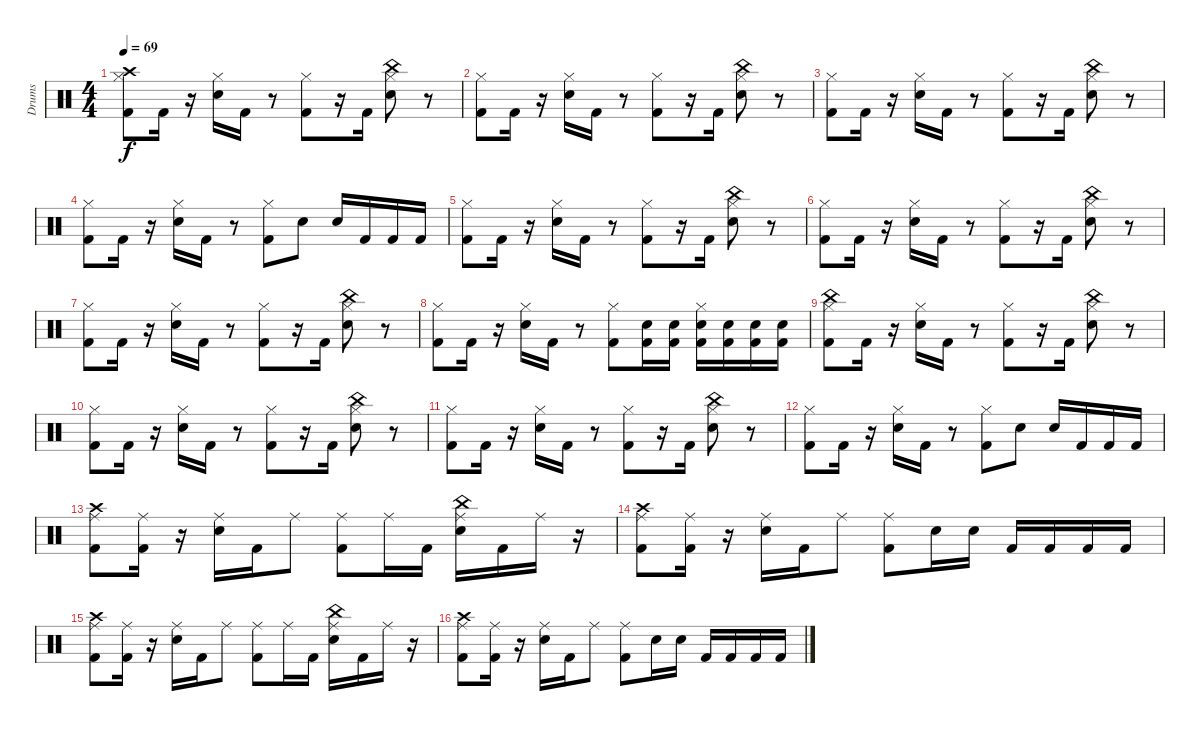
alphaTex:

\track ("Drums" "Drums") {instrument percussion}
\staff {score}
\articulation defaults
\ts (4 4)
\tempo 69
\clef neutral
\ks c
("Hi-Hat (closed)" "Kick (hit) 2" "Crash high (hit)").8{dy f} "Kick (hit) 2".16 r.16 ("Hi-Hat (closed)" "Snare (hit) 2").16 "Kick (hit) 2".16 r.8 ("Hi-Hat (closed)" "Kick (hit) 2").8 r.16 "Kick (hit) 2".16 ("Hi-Hat (closed)" "Snare (hit) 2" "China (hit)").8 r.8 |
("Hi-Hat (closed)" "Kick (hit) 2").8 "Kick (hit) 2".16 r.16 ("Hi-Hat (closed)" "Snare (hit) 2").16 "Kick (hit) 2".16 r.8 ("Hi-Hat (closed)" "Kick (hit) 2").8 r.16 "Kick (hit) 2".16 ("Hi-Hat (closed)" "Snare (hit) 2" "China (hit)").8 r.8 |
("Hi-Hat (closed)" "Kick (hit) 2").8 "Kick (hit) 2".16 r.16 ("Hi-Hat (closed)" "Snare (hit) 2").16 "Kick (hit) 2".16 r.8 ("Hi-Hat (closed)" "Kick (hit) 2").8 r.16 "Kick (hit) 2".16 ("Hi-Hat (closed)" "Snare (hit) 2" "China (hit)").8 r.8 |
("Hi-Hat (closed)" "Kick (hit) 2").8 "Kick (hit) 2".16 r.16 ("Hi-Hat (closed)" "Snare (hit) 2").16 "Kick (hit) 2".16 r.8 ("Hi-Hat (closed)" "Kick (hit) 2").8 "Snare (hit) 2".8 "Snare (hit) 2".16 "Kick (hit) 2".16 "Kick (hit) 2".16 "Kick (hit) 2".16 |
("Hi-Hat (closed)" "Kick (hit) 2").8 "Kick (hit) 2".16 r.16 ("Hi-Hat (closed)" "Snare (hit) 2").16 "Kick (hit) 2".16 r.8 ("Hi-Hat (closed)" "Kick (hit) 2").8 r.16 "Kick (hit) 2".16 ("Hi-Hat (closed)" "Snare (hit) 2" "China (hit)").8 r.8 |
("Hi-Hat (closed)" "Kick (hit) 2").8 "Kick (hit) 2".16 r.16 ("Hi-Hat (closed)" "Snare (hit) 2").16 "Kick (hit) 2".16 r.8 ("Hi-Hat (closed)" "Kick (hit) 2").8 r.16 "Kick (hit) 2".16 ("Hi-Hat (closed)" "Snare (hit) 2" "China (hit)").8 r.8 |
("Hi-Hat (closed)" "Kick (hit) 2").8 "Kick (hit) 2".16 r.16 ("Hi-Hat (closed)" "Snare (hit) 2").16 "Kick (hit) 2".16 r.8 ("Hi-Hat (closed)" "Kick (hit) 2").8 r.16 "Kick (hit) 2".16 ("Hi-Hat (closed)" "Snare (hit) 2" "China (hit)").8 r.8 |
("Hi-Hat (closed)" "Kick (hit) 2").8 "Kick (hit) 2".16 r.16 ("Hi-Hat (closed)" "Snare (hit) 2").16 "Kick (hit) 2".16 r.8 ("Hi-Hat (closed)" "Kick (hit) 2").8 ("Kick (hit) 2" "Snare (hit) 2").16 ("Kick (hit) 2" "Snare (hit) 2").16 ("Hi-Hat (closed)" "Kick (hit) 2" "Snare (hit) 2").16 ("Kick (hit) 2" "Snare (hit) 2").16 ("Kick (hit) 2" "Snare (hit) 2").16 ("Kick (hit) 2" "Snare (hit) 2").16 |
("Hi-Hat (closed)" "Kick (hit) 2" "China (hit)").8 "Kick (hit) 2".16 r.16 ("Hi-Hat (closed)" "Snare (hit) 2").16 "Kick (hit) 2".16 r.8 ("Hi-Hat (closed)" "Kick (hit) 2").8 r.16 "Kick (hit) 2".16 ("Hi-Hat (closed)" "Snare (hit) 2" "China (hit)").8 r.8 |
("Hi-Hat (closed)" "Kick (hit) 2").8 "Kick (hit) 2".16 r.16 ("Hi-Hat (closed)" "Snare (hit) 2").16 "Kick (hit) 2".16 r.8 ("Hi-Hat (closed)" "Kick (hit) 2").8 r.16 "Kick (hit) 2".16 ("Hi-Hat (closed)" "Snare (hit) 2" "China (hit)").8 r.8 |
("Hi-Hat (closed)" "Kick (hit) 2").8 "Kick (hit) 2".16 r.16 ("Hi-Hat (closed)" "Snare (hit) 2").16 "Kick (hit) 2".16 r.8 ("Hi-Hat (closed)" "Kick (hit) 2").8 r.16 "Kick (hit) 2".16 ("Hi-Hat (closed)" "Snare (hit) 2" "China (hit)").8 r.8 |
("Hi-Hat (closed)" "Kick (hit) 2").8 "Kick (hit) 2".16 r.16 ("Hi-Hat (closed)" "Snare (hit) 2").16 "Kick (hit) 2".16 r.8 ("Hi-Hat (closed)" "Kick (hit) 2").8 "Snare (hit) 2".8 "Snare (hit) 2".16 "Kick (hit) 2".16 "Kick (hit) 2".16 "Kick (hit) 2".16 |
("Ride (middle)" "Kick (hit) 2" "Crash high (hit)").8 ("Ride (middle)" "Kick (hit) 2").16 r.16 ("Ride (middle)" "Snare (hit) 2").16 "Kick (hit) 2".16 "Ride (middle)".8 ("Ride (middle)" "Kick (hit) 2").8 "Ride (middle)".16 "Kick (hit) 2".16 ("Ride (middle)" "Snare (hit) 2" "China (hit)").16 "Kick (hit) 2".16 "Ride (middle)".16 r.16 |
("Ride (middle)" "Kick (hit) 2" "Crash high (hit)").8 ("Ride (middle)" "Kick (hit) 2").16 r.16 ("Ride (middle)" "Snare (hit) 2").16 "Kick (hit) 2".16 "Ride (middle)".8 ("Ride (middle)" "Kick (hit) 2").8 "Snare (hit) 2".16 "Snare (hit) 2".16 "Kick (hit) 2".16 "Kick (hit) 2".16 "Kick (hit) 2".16 "Kick (hit) 2".16 |
("Ride (middle)" "Kick (hit) 2" "Crash high (hit)").8 ("Ride (middle)" "Kick (hit) 2").16 r.16 ("Ride (middle)" "Snare (hit) 2").16 "Kick (hit) 2".16 "Ride (middle)".8 ("Ride (middle)" "Kick (hit) 2").8 "Ride (middle)".16 "Kick (hit) 2".16 ("Ride (middle)" "Snare (hit) 2" "China (hit)").16 "Kick (hit) 2".16 "Ride (middle)".16 r.16 |
("Ride (middle)" "Kick (hit) 2" "Crash high (hit)").8 ("Ride (middle)" "Kick (hit) 2").16 r.16 ("Ride (middle)" "Snare (hit) 2").16 "Kick (hit) 2".16 "Ride (middle)".8 ("Ride (middle)" "Kick (hit) 2").8 "Snare (hit) 2".16 "Snare (hit) 2".16 "Kick (hit) 2".16 "Kick (hit) 2".16 "Kick (hit) 2".16 "Kick (hit) 2".16
